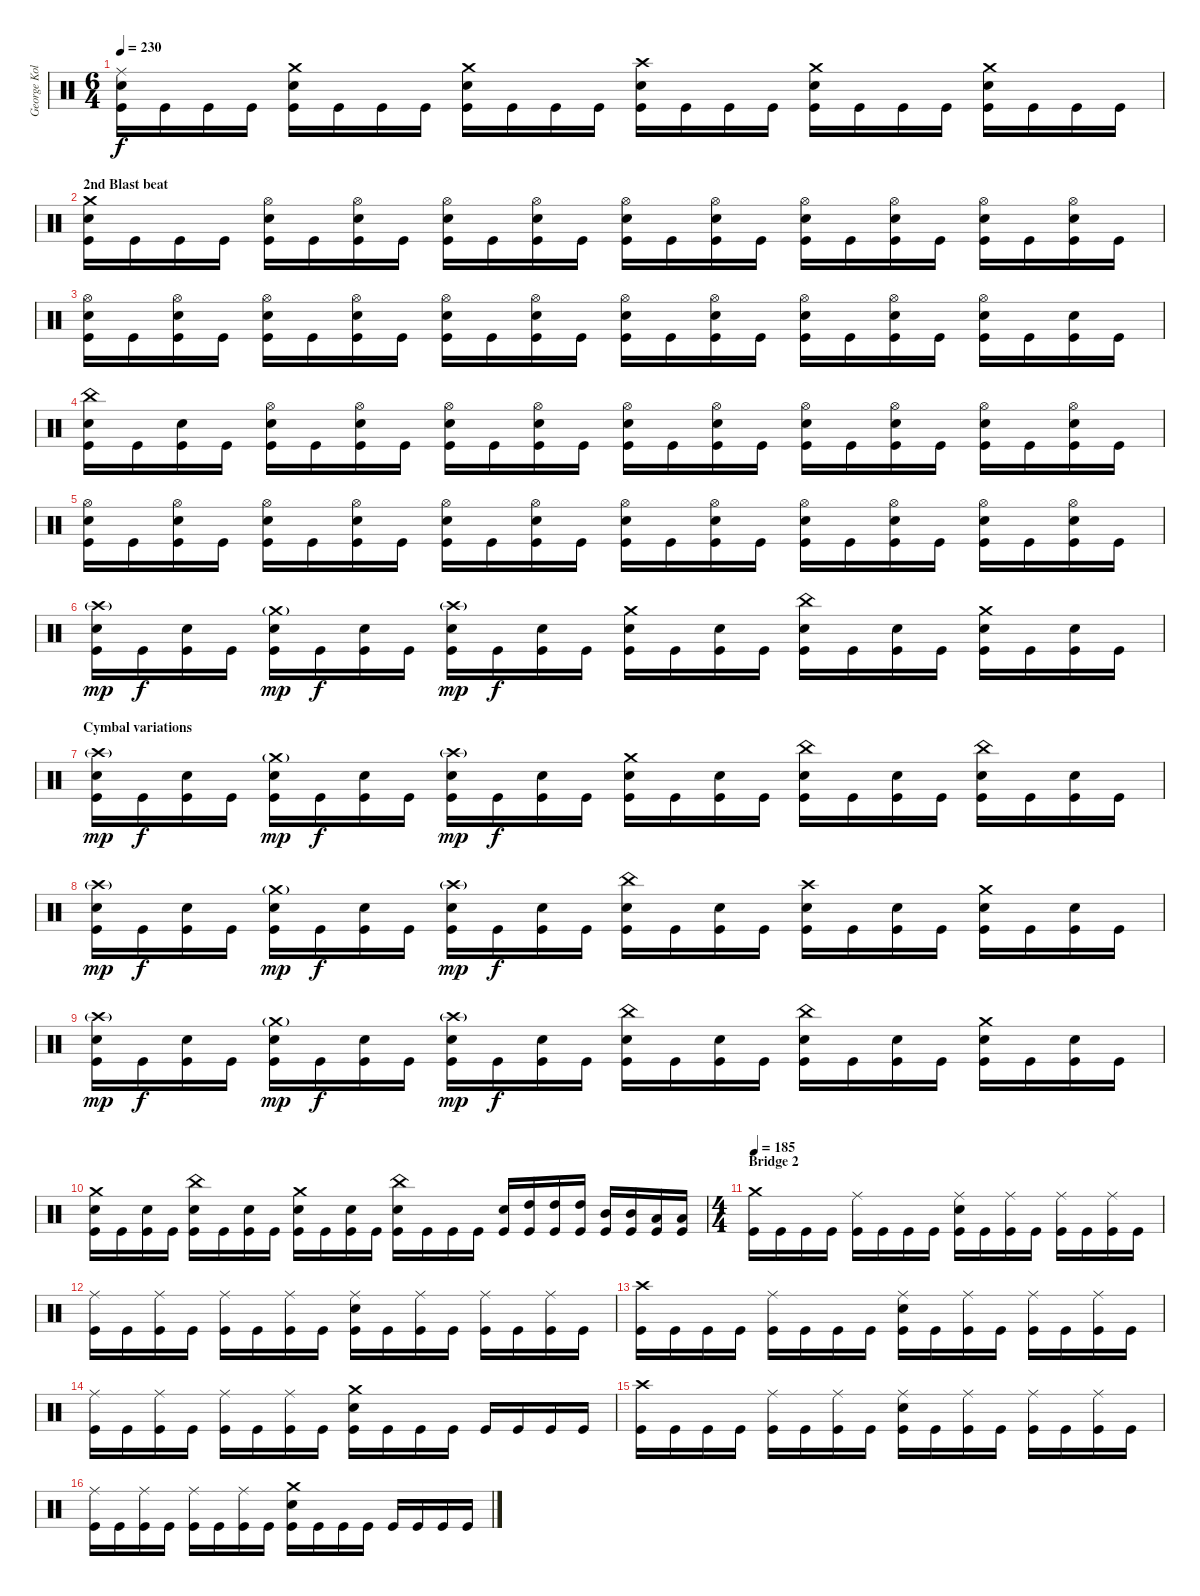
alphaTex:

\track ("George Kollias" "George Kol") {instrument percussion}
\staff {score}
\articulation defaults
\ts (6 4)
\tempo 230
\clef neutral
\ks c
("Ride (middle)" "Snare (hit) 2" "Kick (hit)").16{dy f} "Kick (hit)".16 "Kick (hit)".16 "Kick (hit)".16 ("Crash medium (hit)" "Snare (hit) 2" "Kick (hit)").16 "Kick (hit)".16 "Kick (hit)".16 "Kick (hit)".16 ("Crash medium (hit)" "Snare (hit) 2" "Kick (hit)").16 "Kick (hit)".16 "Kick (hit)".16 "Kick (hit)".16 ("Crash high (hit)" "Snare (hit) 2" "Kick (hit)").16 "Kick (hit)".16 "Kick (hit)".16 "Kick (hit)".16 ("Crash medium (hit)" "Snare (hit) 2" "Kick (hit)").16 "Kick (hit)".16 "Kick (hit)".16 "Kick (hit)".16 ("Crash medium (hit)" "Snare (hit) 2" "Kick (hit)").16 "Kick (hit)".16 "Kick (hit)".16 "Kick (hit)".16 |
\section ("" "2nd Blast beat")
("Crash medium (hit)" "Snare (hit) 2" "Kick (hit)").16 "Kick (hit)".16 "Kick (hit)".16 "Kick (hit)".16 ("Hi-Hat (open)" "Snare (hit) 2" "Kick (hit)").16 "Kick (hit)".16 ("Hi-Hat (open)" "Snare (hit) 2" "Kick (hit)").16 "Kick (hit)".16 ("Hi-Hat (open)" "Snare (hit) 2" "Kick (hit)").16 "Kick (hit)".16 ("Hi-Hat (open)" "Snare (hit) 2" "Kick (hit)").16 "Kick (hit)".16 ("Hi-Hat (open)" "Snare (hit) 2" "Kick (hit)").16 "Kick (hit)".16 ("Hi-Hat (open)" "Snare (hit) 2" "Kick (hit)").16 "Kick (hit)".16 ("Hi-Hat (open)" "Snare (hit) 2" "Kick (hit)").16 "Kick (hit)".16 ("Hi-Hat (open)" "Snare (hit) 2" "Kick (hit)").16 "Kick (hit)".16 ("Hi-Hat (open)" "Snare (hit) 2" "Kick (hit)").16 "Kick (hit)".16 ("Hi-Hat (open)" "Snare (hit) 2" "Kick (hit)").16 "Kick (hit)".16 |
("Hi-Hat (open)" "Snare (hit) 2" "Kick (hit)").16 "Kick (hit)".16 ("Hi-Hat (open)" "Snare (hit) 2" "Kick (hit)").16 "Kick (hit)".16 ("Hi-Hat (open)" "Snare (hit) 2" "Kick (hit)").16 "Kick (hit)".16 ("Hi-Hat (open)" "Snare (hit) 2" "Kick (hit)").16 "Kick (hit)".16 ("Hi-Hat (open)" "Snare (hit) 2" "Kick (hit)").16 "Kick (hit)".16 ("Hi-Hat (open)" "Snare (hit) 2" "Kick (hit)").16 "Kick (hit)".16 ("Hi-Hat (open)" "Snare (hit) 2" "Kick (hit)").16 "Kick (hit)".16 ("Hi-Hat (open)" "Snare (hit) 2" "Kick (hit)").16 "Kick (hit)".16 ("Hi-Hat (open)" "Snare (hit) 2" "Kick (hit)").16 "Kick (hit)".16 ("Hi-Hat (open)" "Snare (hit) 2" "Kick (hit)").16 "Kick (hit)".16 ("Hi-Hat (open)" "Snare (hit) 2" "Kick (hit)").16 "Kick (hit)".16 ("Snare (hit) 2" "Kick (hit)").16 "Kick (hit)".16 |
("China (hit)" "Snare (hit) 2" "Kick (hit)").16 "Kick (hit)".16 ("Snare (hit) 2" "Kick (hit)").16 "Kick (hit)".16 ("Hi-Hat (open)" "Snare (hit) 2" "Kick (hit)").16 "Kick (hit)".16 ("Hi-Hat (open)" "Snare (hit) 2" "Kick (hit)").16 "Kick (hit)".16 ("Hi-Hat (open)" "Snare (hit) 2" "Kick (hit)").16 "Kick (hit)".16 ("Hi-Hat (open)" "Snare (hit) 2" "Kick (hit)").16 "Kick (hit)".16 ("Hi-Hat (open)" "Snare (hit) 2" "Kick (hit)").16 "Kick (hit)".16 ("Hi-Hat (open)" "Snare (hit) 2" "Kick (hit)").16 "Kick (hit)".16 ("Hi-Hat (open)" "Snare (hit) 2" "Kick (hit)").16 "Kick (hit)".16 ("Hi-Hat (open)" "Snare (hit) 2" "Kick (hit)").16 "Kick (hit)".16 ("Hi-Hat (open)" "Snare (hit) 2" "Kick (hit)").16 "Kick (hit)".16 ("Hi-Hat (open)" "Snare (hit) 2" "Kick (hit)").16 "Kick (hit)".16 |
("Hi-Hat (open)" "Snare (hit) 2" "Kick (hit)").16 "Kick (hit)".16 ("Hi-Hat (open)" "Snare (hit) 2" "Kick (hit)").16 "Kick (hit)".16 ("Hi-Hat (open)" "Snare (hit) 2" "Kick (hit)").16 "Kick (hit)".16 ("Hi-Hat (open)" "Snare (hit) 2" "Kick (hit)").16 "Kick (hit)".16 ("Hi-Hat (open)" "Snare (hit) 2" "Kick (hit)").16 "Kick (hit)".16 ("Hi-Hat (open)" "Snare (hit) 2" "Kick (hit)").16 "Kick (hit)".16 ("Hi-Hat (open)" "Snare (hit) 2" "Kick (hit)").16 "Kick (hit)".16 ("Hi-Hat (open)" "Snare (hit) 2" "Kick (hit)").16 "Kick (hit)".16 ("Hi-Hat (open)" "Snare (hit) 2" "Kick (hit)").16 "Kick (hit)".16 ("Hi-Hat (open)" "Snare (hit) 2" "Kick (hit)").16 "Kick (hit)".16 ("Hi-Hat (open)" "Snare (hit) 2" "Kick (hit)").16 "Kick (hit)".16 ("Hi-Hat (open)" "Snare (hit) 2" "Kick (hit)").16 "Kick (hit)".16 |
("Crash high (hit)"{g} "Snare (hit) 2" "Kick (hit)").16{dy mp} "Kick (hit)".16{dy f} ("Snare (hit) 2" "Kick (hit)").16 "Kick (hit)".16 ("Crash medium (hit)"{g} "Snare (hit) 2" "Kick (hit)").16{dy mp} "Kick (hit)".16{dy f} ("Snare (hit) 2" "Kick (hit)").16 "Kick (hit)".16 ("Crash high (hit)"{g} "Snare (hit) 2" "Kick (hit)").16{dy mp} "Kick (hit)".16{dy f} ("Snare (hit) 2" "Kick (hit)").16 "Kick (hit)".16 ("Crash medium (hit)" "Snare (hit) 2" "Kick (hit)").16 "Kick (hit)".16 ("Snare (hit) 2" "Kick (hit)").16 "Kick (hit)".16 ("China (hit)" "Snare (hit) 2" "Kick (hit)").16 "Kick (hit)".16 ("Snare (hit) 2" "Kick (hit)").16 "Kick (hit)".16 ("Crash medium (hit)" "Snare (hit) 2" "Kick (hit)").16 "Kick (hit)".16 ("Snare (hit) 2" "Kick (hit)").16 "Kick (hit)".16 |
\section ("" "Cymbal variations")
("Crash high (hit)"{g} "Snare (hit) 2" "Kick (hit)").16{dy mp} "Kick (hit)".16{dy f} ("Snare (hit) 2" "Kick (hit)").16 "Kick (hit)".16 ("Crash medium (hit)"{g} "Snare (hit) 2" "Kick (hit)").16{dy mp} "Kick (hit)".16{dy f} ("Snare (hit) 2" "Kick (hit)").16 "Kick (hit)".16 ("Crash high (hit)"{g} "Snare (hit) 2" "Kick (hit)").16{dy mp} "Kick (hit)".16{dy f} ("Snare (hit) 2" "Kick (hit)").16 "Kick (hit)".16 ("Crash medium (hit)" "Snare (hit) 2" "Kick (hit)").16 "Kick (hit)".16 ("Snare (hit) 2" "Kick (hit)").16 "Kick (hit)".16 ("China (hit)" "Snare (hit) 2" "Kick (hit)").16 "Kick (hit)".16 ("Snare (hit) 2" "Kick (hit)").16 "Kick (hit)".16 ("China (hit)" "Snare (hit) 2" "Kick (hit)").16 "Kick (hit)".16 ("Snare (hit) 2" "Kick (hit)").16 "Kick (hit)".16 |
("Crash high (hit)"{g} "Snare (hit) 2" "Kick (hit)").16{dy mp} "Kick (hit)".16{dy f} ("Snare (hit) 2" "Kick (hit)").16 "Kick (hit)".16 ("Crash medium (hit)"{g} "Snare (hit) 2" "Kick (hit)").16{dy mp} "Kick (hit)".16{dy f} ("Snare (hit) 2" "Kick (hit)").16 "Kick (hit)".16 ("Crash high (hit)"{g} "Snare (hit) 2" "Kick (hit)").16{dy mp} "Kick (hit)".16{dy f} ("Snare (hit) 2" "Kick (hit)").16 "Kick (hit)".16 ("China (hit)" "Snare (hit) 2" "Kick (hit)").16 "Kick (hit)".16 ("Snare (hit) 2" "Kick (hit)").16 "Kick (hit)".16 ("Crash high (hit)" "Snare (hit) 2" "Kick (hit)").16 "Kick (hit)".16 ("Snare (hit) 2" "Kick (hit)").16 "Kick (hit)".16 ("Crash medium (hit)" "Snare (hit) 2" "Kick (hit)").16 "Kick (hit)".16 ("Snare (hit) 2" "Kick (hit)").16 "Kick (hit)".16 |
("Crash high (hit)"{g} "Snare (hit) 2" "Kick (hit)").16{dy mp} "Kick (hit)".16{dy f} ("Snare (hit) 2" "Kick (hit)").16 "Kick (hit)".16 ("Crash medium (hit)"{g} "Snare (hit) 2" "Kick (hit)").16{dy mp} "Kick (hit)".16{dy f} ("Snare (hit) 2" "Kick (hit)").16 "Kick (hit)".16 ("Crash high (hit)"{g} "Snare (hit) 2" "Kick (hit)").16{dy mp} "Kick (hit)".16{dy f} ("Snare (hit) 2" "Kick (hit)").16 "Kick (hit)".16 ("China (hit)" "Snare (hit) 2" "Kick (hit)").16 "Kick (hit)".16 ("Snare (hit) 2" "Kick (hit)").16 "Kick (hit)".16 ("China (hit)" "Snare (hit) 2" "Kick (hit)").16 "Kick (hit)".16 ("Snare (hit) 2" "Kick (hit)").16 "Kick (hit)".16 ("Crash medium (hit)" "Snare (hit) 2" "Kick (hit)").16 "Kick (hit)".16 ("Snare (hit) 2" "Kick (hit)").16 "Kick (hit)".16 |
("Crash medium (hit)" "Snare (hit) 2" "Kick (hit)").16 "Kick (hit)".16 ("Snare (hit) 2" "Kick (hit)").16 "Kick (hit)".16 ("China (hit)" "Snare (hit) 2" "Kick (hit)").16 "Kick (hit)".16 ("Snare (hit) 2" "Kick (hit)").16 "Kick (hit)".16 ("Crash medium (hit)" "Snare (hit) 2" "Kick (hit)").16 "Kick (hit)".16 ("Snare (hit) 2" "Kick (hit)").16 "Kick (hit)".16 ("China (hit)" "Snare (hit) 2" "Kick (hit)").16 "Kick (hit)".16 "Kick (hit)".16 "Kick (hit)".16 ("Snare (hit) 2" "Kick (hit)").16 ("High Tom (hit)" "Kick (hit)").16 ("High Tom (hit)" "Kick (hit)").16 ("High Tom (hit)" "Kick (hit)").16 ("Mid Tom (hit)" "Kick (hit)").16 ("Mid Tom (hit)" "Kick (hit)").16 ("Low Tom (hit)" "Kick (hit)").16 ("Low Tom (hit)" "Kick (hit)").16 |
\ts (4 4)
\section ("" "Bridge 2")
\tempo 185
("Crash medium (hit)" "Kick (hit)").16 "Kick (hit)".16 "Kick (hit)".16 "Kick (hit)".16 ("Ride (middle)" "Kick (hit)").16 "Kick (hit)".16 "Kick (hit)".16 "Kick (hit)".16 ("Ride (middle)" "Snare (hit) 2" "Kick (hit)").16 "Kick (hit)".16 ("Ride (middle)" "Kick (hit)").16 "Kick (hit)".16 ("Ride (middle)" "Kick (hit)").16 "Kick (hit)".16 ("Ride (middle)" "Kick (hit)").16 "Kick (hit)".16 |
("Ride (middle)" "Kick (hit)").16 "Kick (hit)".16 ("Ride (middle)" "Kick (hit)").16 "Kick (hit)".16 ("Ride (middle)" "Kick (hit)").16 "Kick (hit)".16 ("Ride (middle)" "Kick (hit)").16 "Kick (hit)".16 ("Ride (middle)" "Snare (hit) 2" "Kick (hit)").16 "Kick (hit)".16 ("Ride (middle)" "Kick (hit)").16 "Kick (hit)".16 ("Ride (middle)" "Kick (hit)").16 "Kick (hit)".16 ("Ride (middle)" "Kick (hit)").16 "Kick (hit)".16 |
("Crash high (hit)" "Kick (hit)").16 "Kick (hit)".16 "Kick (hit)".16 "Kick (hit)".16 ("Ride (middle)" "Kick (hit)").16 "Kick (hit)".16 "Kick (hit)".16 "Kick (hit)".16 ("Ride (middle)" "Snare (hit) 2" "Kick (hit)").16 "Kick (hit)".16 ("Ride (middle)" "Kick (hit)").16 "Kick (hit)".16 ("Ride (middle)" "Kick (hit)").16 "Kick (hit)".16 ("Ride (middle)" "Kick (hit)").16 "Kick (hit)".16 |
("Ride (middle)" "Kick (hit)").16 "Kick (hit)".16 ("Ride (middle)" "Kick (hit)").16 "Kick (hit)".16 ("Ride (middle)" "Kick (hit)").16 "Kick (hit)".16 ("Ride (middle)" "Kick (hit)").16 "Kick (hit)".16 ("Crash medium (hit)" "Snare (hit) 2" "Kick (hit)").16 "Kick (hit)".16 "Kick (hit)".16 "Kick (hit)".16 "Kick (hit)".16 "Kick (hit)".16 "Kick (hit)".16 "Kick (hit)".16 |
("Crash high (hit)" "Kick (hit)").16 "Kick (hit)".16 "Kick (hit)".16 "Kick (hit)".16 ("Ride (middle)" "Kick (hit)").16 "Kick (hit)".16 ("Ride (middle)" "Kick (hit)").16 "Kick (hit)".16 ("Ride (middle)" "Snare (hit) 2" "Kick (hit)").16 "Kick (hit)".16 ("Ride (middle)" "Kick (hit)").16 "Kick (hit)".16 ("Ride (middle)" "Kick (hit)").16 "Kick (hit)".16 ("Ride (middle)" "Kick (hit)").16 "Kick (hit)".16 |
("Ride (middle)" "Kick (hit)").16 "Kick (hit)".16 ("Ride (middle)" "Kick (hit)").16 "Kick (hit)".16 ("Ride (middle)" "Kick (hit)").16 "Kick (hit)".16 ("Ride (middle)" "Kick (hit)").16 "Kick (hit)".16 ("Crash medium (hit)" "Snare (hit) 2" "Kick (hit)").16 "Kick (hit)".16 "Kick (hit)".16 "Kick (hit)".16 "Kick (hit)".16 "Kick (hit)".16 "Kick (hit)".16 "Kick (hit)".16
